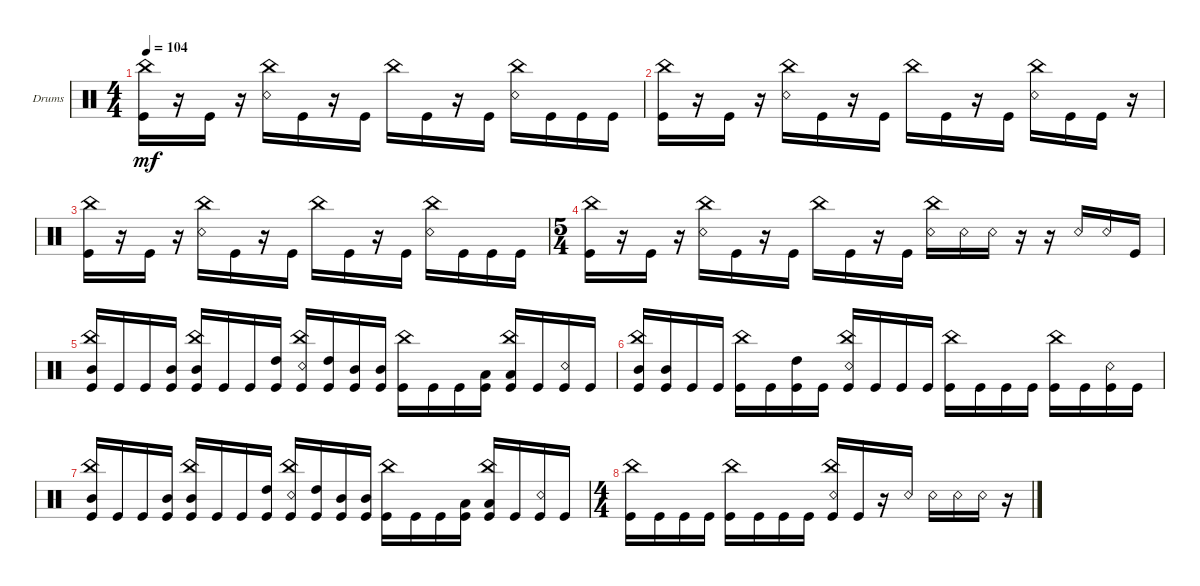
\defaultSystemsLayout 4
\bracketExtendMode groupsimilarinstruments
\firstSystemTrackNameOrientation horizontal
\otherSystemsTrackNameOrientation horizontal
\track ("Drumkit" "Drums") {instrument percussion}
\staff {score}
\articulation defaults
\ts (4 4)
\tempo 104
\clef neutral
\ks c
("Kick (hit)" "China (hit)").16{dy mf} r.16 "Kick (hit)".16 r.16 ("Snare (rim shot)" "China (hit)").16 "Kick (hit)".16 r.16 "Kick (hit)".16 "China (hit)".16 "Kick (hit)".16 r.16 "Kick (hit)".16 ("China (hit)" "Snare (rim shot)").16 "Kick (hit)".16 "Kick (hit)".16 "Kick (hit)".16 |
("Kick (hit)" "China (hit)").16 r.16 "Kick (hit)".16 r.16 ("Snare (rim shot)" "China (hit)").16 "Kick (hit)".16 r.16 "Kick (hit)".16 "China (hit)".16 "Kick (hit)".16 r.16 "Kick (hit)".16 ("China (hit)" "Snare (rim shot)").16 "Kick (hit)".16 "Kick (hit)".16 r.16 |
("Kick (hit)" "China (hit)").16 r.16 "Kick (hit)".16 r.16 ("Snare (rim shot)" "China (hit)").16 "Kick (hit)".16 r.16 "Kick (hit)".16 "China (hit)".16 "Kick (hit)".16 r.16 "Kick (hit)".16 ("China (hit)" "Snare (rim shot)").16 "Kick (hit)".16 "Kick (hit)".16 "Kick (hit)".16 |
\ts (5 4)
("Kick (hit)" "China (hit)").16 r.16 "Kick (hit)".16 r.16 ("Snare (rim shot)" "China (hit)").16 "Kick (hit)".16 r.16 "Kick (hit)".16 "China (hit)".16 "Kick (hit)".16 r.16 "Kick (hit)".16 ("China (hit)" "Snare (rim shot)").16 "Snare (rim shot)".16 "Snare (rim shot)".16 r.16 r.16 "Snare (rim shot)".16 "Snare (rim shot)".16 "Kick (hit)".16 |
("Kick (hit)" "China (hit)" "Mid Tom (hit)").16 "Kick (hit)".16 "Kick (hit)".16 ("Kick (hit)" "Mid Tom (hit)").16 ("Kick (hit)" "China (hit)" "Mid Tom (hit)").16 "Kick (hit)".16 "Kick (hit)".16 ("Kick (hit)" "High Tom (hit)").16 ("Kick (hit)" "China (hit)" "Snare (rim shot)").16 ("Kick (hit)" "High Tom (hit)").16 ("Kick (hit)" "Mid Tom (hit)").16 ("Kick (hit)" "Mid Tom (hit)").16 ("Kick (hit)" "China (hit)").16 "Kick (hit)".16 "Kick (hit)".16 ("Kick (hit)" "Low Tom (hit)").16 ("Low Tom (hit)" "Kick (hit)" "China (hit)").16 "Kick (hit)".16 ("Kick (hit)" "Snare (rim shot)").16 "Kick (hit)".16 |
("Kick (hit)" "China (hit)" "Mid Tom (hit)").16 ("Kick (hit)" "Mid Tom (hit)").16 "Kick (hit)".16 "Kick (hit)".16 ("Kick (hit)" "China (hit)").16 "Kick (hit)".16 ("Kick (hit)" "High Tom (hit)").16 "Kick (hit)".16 ("Kick (hit)" "China (hit)" "Snare (rim shot)").16 "Kick (hit)".16 "Kick (hit)".16 "Kick (hit)".16 ("Kick (hit)" "China (hit)").16 "Kick (hit)".16 "Kick (hit)".16 "Kick (hit)".16 ("Kick (hit)" "China (hit)").16 "Kick (hit)".16 ("Kick (hit)" "Snare (rim shot)").16 "Kick (hit)".16 |
("Kick (hit)" "China (hit)" "Mid Tom (hit)").16 "Kick (hit)".16 "Kick (hit)".16 ("Kick (hit)" "Mid Tom (hit)").16 ("Kick (hit)" "China (hit)" "Mid Tom (hit)").16 "Kick (hit)".16 "Kick (hit)".16 ("Kick (hit)" "High Tom (hit)").16 ("Kick (hit)" "China (hit)" "Snare (rim shot)").16 ("Kick (hit)" "High Tom (hit)").16 ("Kick (hit)" "Mid Tom (hit)").16 ("Kick (hit)" "Mid Tom (hit)").16 ("Kick (hit)" "China (hit)").16 "Kick (hit)".16 "Kick (hit)".16 ("Kick (hit)" "Low Tom (hit)").16 ("Low Tom (hit)" "Kick (hit)" "China (hit)").16 "Kick (hit)".16 ("Kick (hit)" "Snare (rim shot)").16 "Kick (hit)".16 |
\ts (4 4)
("Kick (hit)" "China (hit)").16 "Kick (hit)".16 "Kick (hit)".16 "Kick (hit)".16 ("Kick (hit)" "China (hit)").16 "Kick (hit)".16 "Kick (hit)".16 "Kick (hit)".16 ("Kick (hit)" "China (hit)" "Snare (rim shot)").16 "Kick (hit)".16 r.16 "Snare (rim shot)".16 "Snare (rim shot)".16 "Snare (rim shot)".16 "Snare (rim shot)".16 r.16
